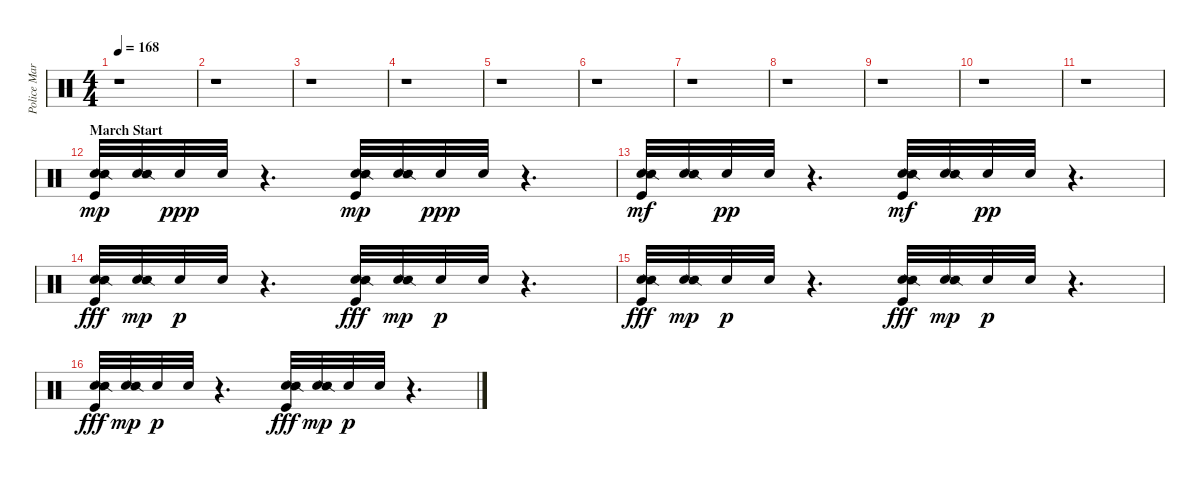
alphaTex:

\track ("Police March 1" "Police Mar") {instrument percussion}
\staff {score}
\articulation defaults
\ts (4 4)
\tempo 168
\clef neutral
\ks c
r.1{dy mp} |
r.1 |
r.1 |
r.1 |
r.1 |
r.1 |
r.1 |
r.1 |
r.1 |
r.1 |
r.1 |
\section ("" "March Start")
("Hand Clap (hit)" "Snare (side stick) 2" "Kick (hit)").32 ("Hand Clap (hit)" "Snare (side stick) 2").32 "Hand Clap (hit)".32{dy ppp} "Hand Clap (hit)".32 r.4{d} ("Hand Clap (hit)" "Snare (side stick) 2" "Kick (hit)").32{dy mp} ("Hand Clap (hit)" "Snare (side stick) 2").32 "Hand Clap (hit)".32{dy ppp} "Hand Clap (hit)".32 r.4{d} |
("Hand Clap (hit)" "Snare (side stick) 2" "Kick (hit)").32{dy mf} ("Hand Clap (hit)" "Snare (side stick) 2").32 "Hand Clap (hit)".32{dy pp} "Hand Clap (hit)".32 r.4{d} ("Hand Clap (hit)" "Snare (side stick) 2" "Kick (hit)").32{dy mf} ("Hand Clap (hit)" "Snare (side stick) 2").32 "Hand Clap (hit)".32{dy pp} "Hand Clap (hit)".32 r.4{d} |
("Hand Clap (hit)" "Snare (side stick) 2" "Kick (hit)").32{dy fff} ("Hand Clap (hit)" "Snare (side stick) 2").32{dy mp} "Hand Clap (hit)".32{dy p} "Hand Clap (hit)".32 r.4{d} ("Hand Clap (hit)" "Snare (side stick) 2" "Kick (hit)").32{dy fff} ("Hand Clap (hit)" "Snare (side stick) 2").32{dy mp} "Hand Clap (hit)".32{dy p} "Hand Clap (hit)".32 r.4{d} |
("Hand Clap (hit)" "Snare (side stick) 2" "Kick (hit)").32{dy fff} ("Hand Clap (hit)" "Snare (side stick) 2").32{dy mp} "Hand Clap (hit)".32{dy p} "Hand Clap (hit)".32 r.4{d} ("Hand Clap (hit)" "Snare (side stick) 2" "Kick (hit)").32{dy fff} ("Hand Clap (hit)" "Snare (side stick) 2").32{dy mp} "Hand Clap (hit)".32{dy p} "Hand Clap (hit)".32 r.4{d} |
("Hand Clap (hit)" "Snare (side stick) 2" "Kick (hit)").32{dy fff} ("Hand Clap (hit)" "Snare (side stick) 2").32{dy mp} "Hand Clap (hit)".32{dy p} "Hand Clap (hit)".32 r.4{d} ("Hand Clap (hit)" "Snare (side stick) 2" "Kick (hit)").32{dy fff} ("Hand Clap (hit)" "Snare (side stick) 2").32{dy mp} "Hand Clap (hit)".32{dy p} "Hand Clap (hit)".32 r.4{d}
